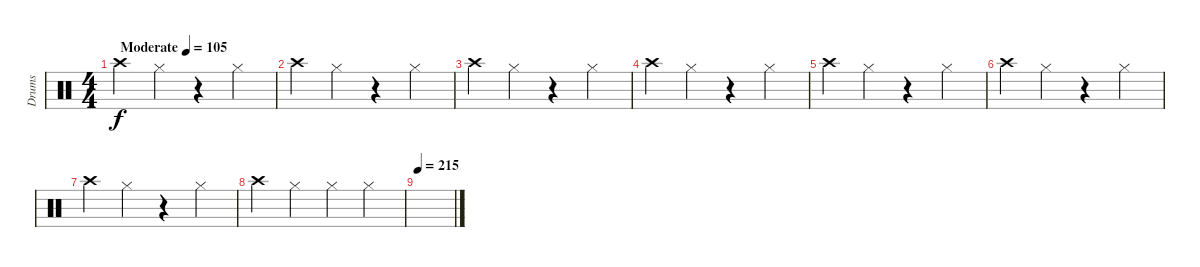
\track ("Drums" "Drums") {instrument percussion}
\staff {score}
\articulation defaults
\ts (4 4)
\tempo (105 "Moderate")
\clef neutral
\ks c "Crash high (hit)".4{dy f} "Hi-Hat (closed)".4
r.4 "Hi-Hat (closed)".4 |
"Crash high (hit)".4 "Hi-Hat (closed)".4 r.4 "Hi-Hat (closed)".4 |
"Crash high (hit)".4 "Hi-Hat (closed)".4 r.4 "Hi-Hat (closed)".4 |
"Crash high (hit)".4 "Hi-Hat (closed)".4 r.4 "Hi-Hat (closed)".4 |
"Crash high (hit)".4 "Hi-Hat (closed)".4 r.4 "Hi-Hat (closed)".4 |
"Crash high (hit)".4 "Hi-Hat (closed)".4 r.4 "Hi-Hat (closed)".4 |
"Crash high (hit)".4 "Hi-Hat (closed)".4 r.4 "Hi-Hat (closed)".4 |
"Crash high (hit)".4 "Hi-Hat (closed)".4 "Hi-Hat (closed)".4 "Hi-Hat (closed)".4 |
\tempo 215
